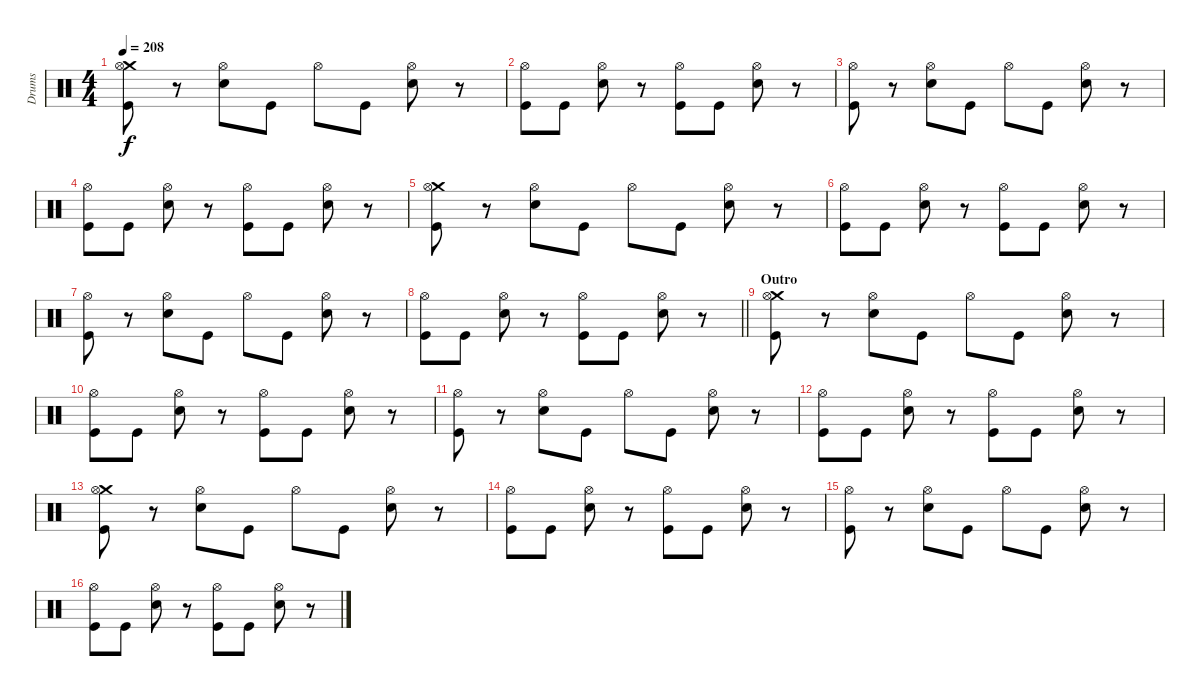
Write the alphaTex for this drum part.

\track ("Drums" "Drums") {instrument percussion}
\staff {score}
\articulation defaults
\ts (4 4)
\tempo 208
\clef neutral
\ks c
("Crash medium (hit)" "Hi-Hat (open)" "Kick (hit)").8{dy f} r.8 ("Hi-Hat (open)" "Electric Snare (hit)").8 "Kick (hit)".8 "Hi-Hat (open)".8 "Kick (hit)".8 ("Hi-Hat (open)" "Electric Snare (hit)").8 r.8 |
("Hi-Hat (open)" "Kick (hit)").8 "Kick (hit)".8 ("Hi-Hat (open)" "Electric Snare (hit)").8 r.8 ("Hi-Hat (open)" "Kick (hit)").8 "Kick (hit)".8 ("Hi-Hat (open)" "Electric Snare (hit)").8 r.8 |
("Hi-Hat (open)" "Kick (hit)").8 r.8 ("Hi-Hat (open)" "Electric Snare (hit)").8 "Kick (hit)".8 "Hi-Hat (open)".8 "Kick (hit)".8 ("Hi-Hat (open)" "Electric Snare (hit)").8 r.8 |
("Hi-Hat (open)" "Kick (hit)").8 "Kick (hit)".8 ("Hi-Hat (open)" "Electric Snare (hit)").8 r.8 ("Hi-Hat (open)" "Kick (hit)").8 "Kick (hit)".8 ("Hi-Hat (open)" "Electric Snare (hit)").8 r.8 |
("Crash medium (hit)" "Hi-Hat (open)" "Kick (hit)").8 r.8 ("Hi-Hat (open)" "Electric Snare (hit)").8 "Kick (hit)".8 "Hi-Hat (open)".8 "Kick (hit)".8 ("Hi-Hat (open)" "Electric Snare (hit)").8 r.8 |
("Hi-Hat (open)" "Kick (hit)").8 "Kick (hit)".8 ("Hi-Hat (open)" "Electric Snare (hit)").8 r.8 ("Hi-Hat (open)" "Kick (hit)").8 "Kick (hit)".8 ("Hi-Hat (open)" "Electric Snare (hit)").8 r.8 |
("Hi-Hat (open)" "Kick (hit)").8 r.8 ("Hi-Hat (open)" "Electric Snare (hit)").8 "Kick (hit)".8 "Hi-Hat (open)".8 "Kick (hit)".8 ("Hi-Hat (open)" "Electric Snare (hit)").8 r.8 |
\barLineRight lightlight
("Hi-Hat (open)" "Kick (hit)").8 "Kick (hit)".8 ("Hi-Hat (open)" "Electric Snare (hit)").8 r.8 ("Hi-Hat (open)" "Kick (hit)").8 "Kick (hit)".8 ("Hi-Hat (open)" "Electric Snare (hit)").8 r.8 |
\section ("" "Outro")
("Crash medium (hit)" "Hi-Hat (open)" "Kick (hit)").8 r.8 ("Hi-Hat (open)" "Electric Snare (hit)").8 "Kick (hit)".8 "Hi-Hat (open)".8 "Kick (hit)".8 ("Hi-Hat (open)" "Electric Snare (hit)").8 r.8 |
("Hi-Hat (open)" "Kick (hit)").8 "Kick (hit)".8 ("Hi-Hat (open)" "Electric Snare (hit)").8 r.8 ("Hi-Hat (open)" "Kick (hit)").8 "Kick (hit)".8 ("Hi-Hat (open)" "Electric Snare (hit)").8 r.8 |
("Hi-Hat (open)" "Kick (hit)").8 r.8 ("Hi-Hat (open)" "Electric Snare (hit)").8 "Kick (hit)".8 "Hi-Hat (open)".8 "Kick (hit)".8 ("Hi-Hat (open)" "Electric Snare (hit)").8 r.8 |
("Hi-Hat (open)" "Kick (hit)").8 "Kick (hit)".8 ("Hi-Hat (open)" "Electric Snare (hit)").8 r.8 ("Hi-Hat (open)" "Kick (hit)").8 "Kick (hit)".8 ("Hi-Hat (open)" "Electric Snare (hit)").8 r.8 |
("Crash medium (hit)" "Hi-Hat (open)" "Kick (hit)").8 r.8 ("Hi-Hat (open)" "Electric Snare (hit)").8 "Kick (hit)".8 "Hi-Hat (open)".8 "Kick (hit)".8 ("Hi-Hat (open)" "Electric Snare (hit)").8 r.8 |
("Hi-Hat (open)" "Kick (hit)").8 "Kick (hit)".8 ("Hi-Hat (open)" "Electric Snare (hit)").8 r.8 ("Hi-Hat (open)" "Kick (hit)").8 "Kick (hit)".8 ("Hi-Hat (open)" "Electric Snare (hit)").8 r.8 |
("Hi-Hat (open)" "Kick (hit)").8 r.8 ("Hi-Hat (open)" "Electric Snare (hit)").8 "Kick (hit)".8 "Hi-Hat (open)".8 "Kick (hit)".8 ("Hi-Hat (open)" "Electric Snare (hit)").8 r.8 |
("Hi-Hat (open)" "Kick (hit)").8 "Kick (hit)".8 ("Hi-Hat (open)" "Electric Snare (hit)").8 r.8 ("Hi-Hat (open)" "Kick (hit)").8 "Kick (hit)".8 ("Hi-Hat (open)" "Electric Snare (hit)").8 r.8
